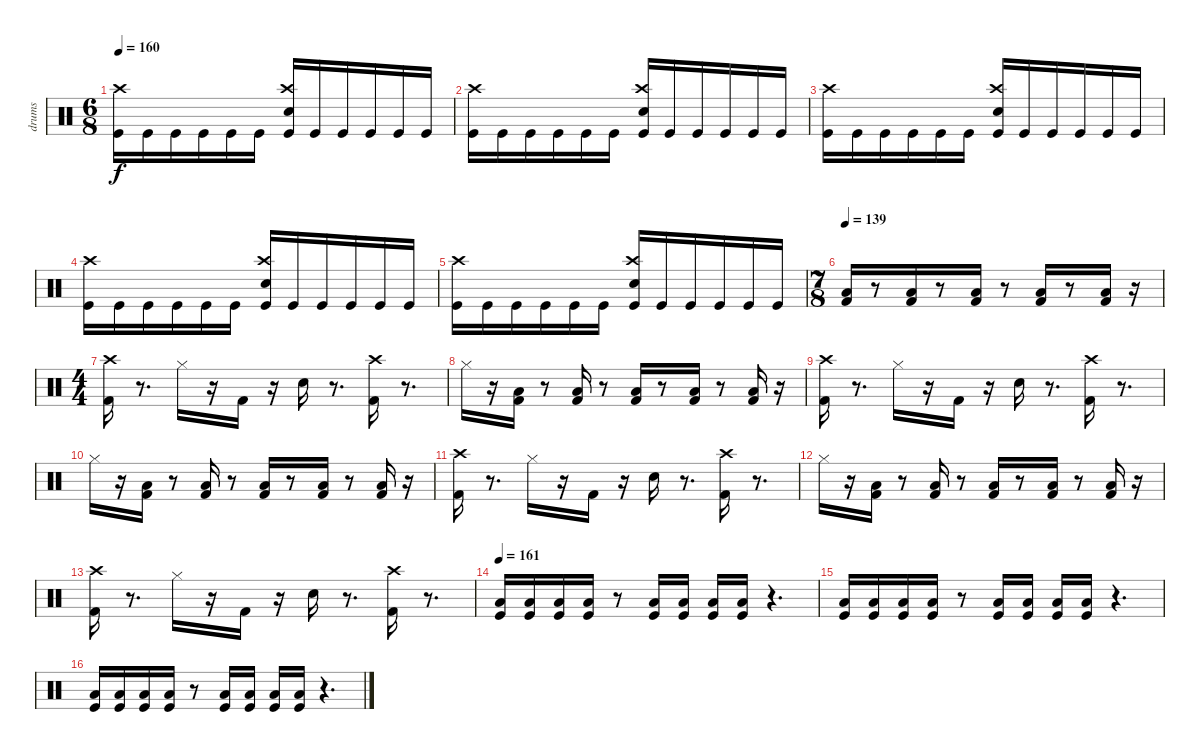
\track ("drums" "drums") {instrument percussion}
\staff {score}
\articulation defaults
\ts (6 8)
\tempo 160
\clef neutral
\ks c
("Kick (hit)" "Crash high (hit)").16{dy f} "Kick (hit)".16 "Kick (hit)".16 "Kick (hit)".16 "Kick (hit)".16 "Kick (hit)".16 ("Kick (hit)" "Electric Snare (hit)" "Crash high (hit)").16 "Kick (hit)".16 "Kick (hit)".16 "Kick (hit)".16 "Kick (hit)".16 "Kick (hit)".16 |
("Kick (hit)" "Crash high (hit)").16 "Kick (hit)".16 "Kick (hit)".16 "Kick (hit)".16 "Kick (hit)".16 "Kick (hit)".16 ("Kick (hit)" "Electric Snare (hit)" "Crash high (hit)").16 "Kick (hit)".16 "Kick (hit)".16 "Kick (hit)".16 "Kick (hit)".16 "Kick (hit)".16 |
("Kick (hit)" "Crash high (hit)").16 "Kick (hit)".16 "Kick (hit)".16 "Kick (hit)".16 "Kick (hit)".16 "Kick (hit)".16 ("Kick (hit)" "Electric Snare (hit)" "Crash high (hit)").16 "Kick (hit)".16 "Kick (hit)".16 "Kick (hit)".16 "Kick (hit)".16 "Kick (hit)".16 |
("Kick (hit)" "Crash high (hit)").16 "Kick (hit)".16 "Kick (hit)".16 "Kick (hit)".16 "Kick (hit)".16 "Kick (hit)".16 ("Kick (hit)" "Electric Snare (hit)" "Crash high (hit)").16 "Kick (hit)".16 "Kick (hit)".16 "Kick (hit)".16 "Kick (hit)".16 "Kick (hit)".16 |
("Kick (hit)" "Crash high (hit)").16 "Kick (hit)".16 "Kick (hit)".16 "Kick (hit)".16 "Kick (hit)".16 "Kick (hit)".16 ("Kick (hit)" "Electric Snare (hit)" "Crash high (hit)").16 "Kick (hit)".16 "Kick (hit)".16 "Kick (hit)".16 "Kick (hit)".16 "Kick (hit)".16 |
\ts (7 8)
\tempo 139
("Kick (hit) 2" "Low Floor Tom (hit)").16 r.8 ("Kick (hit) 2" "Low Floor Tom (hit)").16 r.8 ("Kick (hit) 2" "Low Floor Tom (hit)").16 r.8 ("Kick (hit) 2" "Low Floor Tom (hit)").16 r.8 ("Kick (hit) 2" "Low Floor Tom (hit)").16 r.16 |
\ts (4 4)
("Kick (hit) 2" "Crash high (hit)").16 r.8{d} "Hi-Hat (closed)".16 r.16 "Kick (hit) 2".16 r.16 "Electric Snare (hit)".16 r.8{d} ("Kick (hit) 2" "Crash high (hit)").16 r.8{d} |
"Hi-Hat (closed)".16 r.16 ("Kick (hit) 2" "Low Floor Tom (hit)").16 r.8 ("Kick (hit) 2" "Low Floor Tom (hit)").16 r.8 ("Kick (hit) 2" "Low Floor Tom (hit)").16 r.8 ("Kick (hit) 2" "Low Floor Tom (hit)").16 r.8 ("Kick (hit) 2" "Low Floor Tom (hit)").16 r.16 |
("Kick (hit) 2" "Crash high (hit)").16 r.8{d} "Hi-Hat (closed)".16 r.16 "Kick (hit) 2".16 r.16 "Electric Snare (hit)".16 r.8{d} ("Kick (hit) 2" "Crash high (hit)").16 r.8{d} |
"Hi-Hat (closed)".16 r.16 ("Kick (hit) 2" "Low Floor Tom (hit)").16 r.8 ("Kick (hit) 2" "Low Floor Tom (hit)").16 r.8 ("Kick (hit) 2" "Low Floor Tom (hit)").16 r.8 ("Kick (hit) 2" "Low Floor Tom (hit)").16 r.8 ("Kick (hit) 2" "Low Floor Tom (hit)").16 r.16 |
("Kick (hit) 2" "Crash high (hit)").16 r.8{d} "Hi-Hat (closed)".16 r.16 "Kick (hit) 2".16 r.16 "Electric Snare (hit)".16 r.8{d} ("Kick (hit) 2" "Crash high (hit)").16 r.8{d} |
"Hi-Hat (closed)".16 r.16 ("Kick (hit) 2" "Low Floor Tom (hit)").16 r.8 ("Kick (hit) 2" "Low Floor Tom (hit)").16 r.8 ("Kick (hit) 2" "Low Floor Tom (hit)").16 r.8 ("Kick (hit) 2" "Low Floor Tom (hit)").16 r.8 ("Kick (hit) 2" "Low Floor Tom (hit)").16 r.16 |
("Kick (hit) 2" "Crash high (hit)").16 r.8{d} "Hi-Hat (closed)".16 r.16 "Kick (hit) 2".16 r.16 "Electric Snare (hit)".16 r.8{d} ("Kick (hit) 2" "Crash high (hit)").16 r.8{d} |
\tempo 161
("Kick (hit)" "Low Floor Tom (hit)").16 ("Kick (hit)" "Low Floor Tom (hit)").16 ("Kick (hit)" "Low Floor Tom (hit)").16 ("Kick (hit)" "Low Floor Tom (hit)").16 r.8 ("Kick (hit)" "Low Floor Tom (hit)").16 ("Kick (hit)" "Low Floor Tom (hit)").16 ("Kick (hit)" "Low Floor Tom (hit)").16 ("Kick (hit)" "Low Floor Tom (hit)").16 r.4{d} |
("Kick (hit)" "Low Floor Tom (hit)").16 ("Kick (hit)" "Low Floor Tom (hit)").16 ("Kick (hit)" "Low Floor Tom (hit)").16 ("Kick (hit)" "Low Floor Tom (hit)").16 r.8 ("Kick (hit)" "Low Floor Tom (hit)").16 ("Kick (hit)" "Low Floor Tom (hit)").16 ("Kick (hit)" "Low Floor Tom (hit)").16 ("Kick (hit)" "Low Floor Tom (hit)").16 r.4{d} |
("Kick (hit)" "Low Floor Tom (hit)").16 ("Kick (hit)" "Low Floor Tom (hit)").16 ("Kick (hit)" "Low Floor Tom (hit)").16 ("Kick (hit)" "Low Floor Tom (hit)").16 r.8 ("Kick (hit)" "Low Floor Tom (hit)").16 ("Kick (hit)" "Low Floor Tom (hit)").16 ("Kick (hit)" "Low Floor Tom (hit)").16 ("Kick (hit)" "Low Floor Tom (hit)").16 r.4{d}
